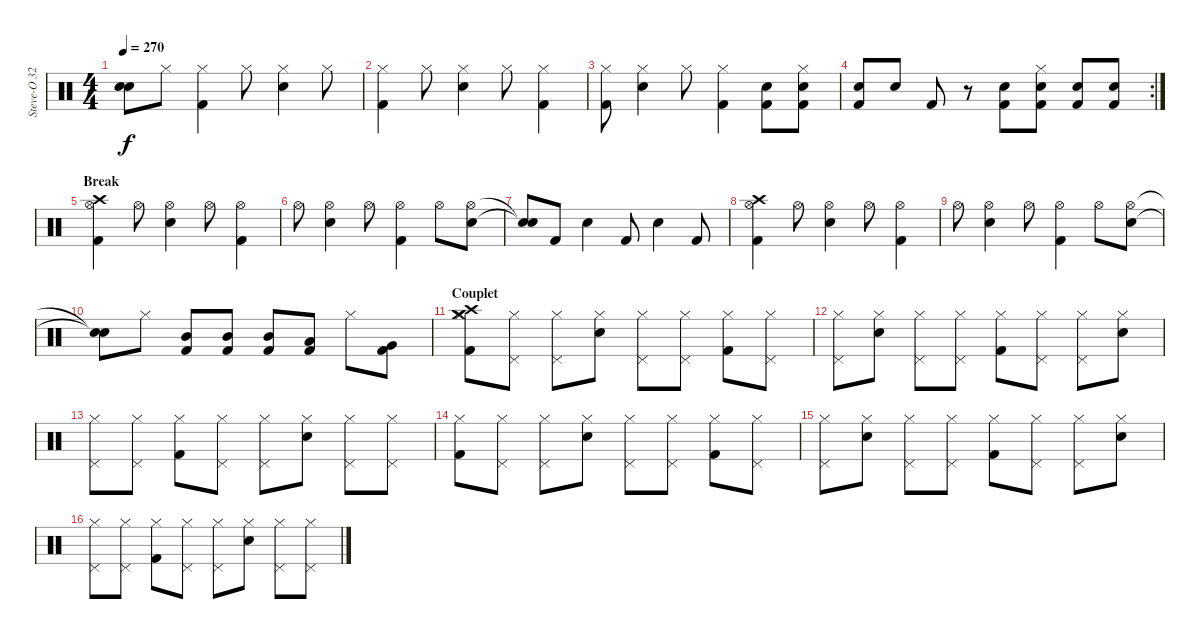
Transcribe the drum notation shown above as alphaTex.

\track ("Steve-O 32" "Steve-O 32") {instrument percussion}
\staff {score}
\articulation defaults
\ts (4 4)
\tempo 270
\clef neutral
\ks c
("Snare (hit)"{t} "Snare (hit)"{t}).8{dy f} "Hi-Hat (closed)".8 ("Kick (hit) 2" "Hi-Hat (closed)").4 "Hi-Hat (closed)".8 ("Electric Snare (hit)" "Hi-Hat (closed)").4 "Hi-Hat (closed)".8 |
("Hi-Hat (closed)" "Kick (hit) 2").4 "Hi-Hat (closed)".8 ("Electric Snare (hit)" "Hi-Hat (closed)").4 "Hi-Hat (closed)".8 ("Kick (hit) 2" "Hi-Hat (closed)").4 |
("Hi-Hat (closed)" "Kick (hit) 2").8 ("Electric Snare (hit)" "Hi-Hat (closed)").4 "Hi-Hat (closed)".8 ("Kick (hit) 2" "Hi-Hat (closed)").4 ("Electric Snare (hit)" "Kick (hit) 2").8 ("Electric Snare (hit)" "Hi-Hat (closed)" "Kick (hit) 2").8 |
\rc 2
("Electric Snare (hit)" "Kick (hit) 2").8 "Electric Snare (hit)".8 "Kick (hit) 2".8 r.8 ("Electric Snare (hit)" "Kick (hit) 2").8 ("Electric Snare (hit)" "Hi-Hat (closed)" "Kick (hit) 2").8 ("Electric Snare (hit)" "Kick (hit) 2").8 ("Electric Snare (hit)" "Kick (hit) 2").8 |
\section ("" "Break")
("Crash high (hit)" "Hi-Hat (open)" "Kick (hit) 2").4 "Hi-Hat (open)".8 ("Electric Snare (hit)" "Hi-Hat (open)").4 "Hi-Hat (open)".8 ("Kick (hit) 2" "Hi-Hat (open)").4 |
"Hi-Hat (open)".8 ("Electric Snare (hit)" "Hi-Hat (open)").4 "Hi-Hat (open)".8 ("Kick (hit) 2" "Hi-Hat (open)").4 "Hi-Hat (open)".8 ("Electric Snare (hit)" "Hi-Hat (open)").8 |
("Snare (hit)"{t} "Snare (hit)"{t}).8 "Kick (hit) 2".8 "Electric Snare (hit)".4 "Kick (hit) 2".8 "Electric Snare (hit)".4 "Kick (hit) 2".8 |
("Crash high (hit)" "Hi-Hat (open)" "Kick (hit) 2").4 "Hi-Hat (open)".8 ("Electric Snare (hit)" "Hi-Hat (open)").4 "Hi-Hat (open)".8 ("Kick (hit) 2" "Hi-Hat (open)").4 |
"Hi-Hat (open)".8 ("Electric Snare (hit)" "Hi-Hat (open)").4 "Hi-Hat (open)".8 ("Kick (hit) 2" "Hi-Hat (open)").4 "Hi-Hat (open)".8 ("Electric Snare (hit)" "Hi-Hat (open)").8 |
("Snare (hit)"{t} "Snare (hit)"{t}).8 "Hi-Hat (closed)".8 ("Mid Tom (hit)" "Kick (hit) 2").8 ("Mid Tom (hit)" "Kick (hit) 2").8 ("Mid Tom (hit)" "Kick (hit) 2").8 ("Low Tom (hit)" "Kick (hit) 2").8 "Hi-Hat (closed)".8 ("Very Low Tom (hit)" "Kick (hit) 2").8 |
\section ("" "Couplet")
("Crash medium (hit)" "Crash high (hit)" "Hi-Hat (closed)" "Kick (hit) 2").8 ("Pedal Hi-Hat (hit)" "Hi-Hat (closed)").8 ("Pedal Hi-Hat (hit)" "Hi-Hat (closed)").8 ("Electric Snare (hit)" "Hi-Hat (closed)").8 ("Pedal Hi-Hat (hit)" "Hi-Hat (closed)").8 ("Pedal Hi-Hat (hit)" "Hi-Hat (closed)").8 ("Hi-Hat (closed)" "Kick (hit) 2").8 ("Pedal Hi-Hat (hit)" "Hi-Hat (closed)").8 |
("Pedal Hi-Hat (hit)" "Hi-Hat (closed)").8 ("Electric Snare (hit)" "Hi-Hat (closed)").8 ("Pedal Hi-Hat (hit)" "Hi-Hat (closed)").8 ("Pedal Hi-Hat (hit)" "Hi-Hat (closed)").8 ("Kick (hit) 2" "Hi-Hat (closed)").8 ("Pedal Hi-Hat (hit)" "Hi-Hat (closed)").8 ("Pedal Hi-Hat (hit)" "Hi-Hat (closed)").8 ("Electric Snare (hit)" "Hi-Hat (closed)").8 |
("Pedal Hi-Hat (hit)" "Hi-Hat (closed)").8 ("Pedal Hi-Hat (hit)" "Hi-Hat (closed)").8 ("Kick (hit) 2" "Hi-Hat (closed)").8 ("Pedal Hi-Hat (hit)" "Hi-Hat (closed)").8 ("Pedal Hi-Hat (hit)" "Hi-Hat (closed)").8 ("Electric Snare (hit)" "Hi-Hat (closed)").8 ("Pedal Hi-Hat (hit)" "Hi-Hat (closed)").8 ("Pedal Hi-Hat (hit)" "Hi-Hat (closed)").8 |
("Hi-Hat (closed)" "Kick (hit) 2").8 ("Pedal Hi-Hat (hit)" "Hi-Hat (closed)").8 ("Pedal Hi-Hat (hit)" "Hi-Hat (closed)").8 ("Electric Snare (hit)" "Hi-Hat (closed)").8 ("Pedal Hi-Hat (hit)" "Hi-Hat (closed)").8 ("Pedal Hi-Hat (hit)" "Hi-Hat (closed)").8 ("Hi-Hat (closed)" "Kick (hit) 2").8 ("Pedal Hi-Hat (hit)" "Hi-Hat (closed)").8 |
("Pedal Hi-Hat (hit)" "Hi-Hat (closed)").8 ("Electric Snare (hit)" "Hi-Hat (closed)").8 ("Pedal Hi-Hat (hit)" "Hi-Hat (closed)").8 ("Pedal Hi-Hat (hit)" "Hi-Hat (closed)").8 ("Kick (hit) 2" "Hi-Hat (closed)").8 ("Pedal Hi-Hat (hit)" "Hi-Hat (closed)").8 ("Pedal Hi-Hat (hit)" "Hi-Hat (closed)").8 ("Electric Snare (hit)" "Hi-Hat (closed)").8 |
("Pedal Hi-Hat (hit)" "Hi-Hat (closed)").8 ("Pedal Hi-Hat (hit)" "Hi-Hat (closed)").8 ("Kick (hit) 2" "Hi-Hat (closed)").8 ("Pedal Hi-Hat (hit)" "Hi-Hat (closed)").8 ("Pedal Hi-Hat (hit)" "Hi-Hat (closed)").8 ("Electric Snare (hit)" "Hi-Hat (closed)").8 ("Pedal Hi-Hat (hit)" "Hi-Hat (closed)").8 ("Pedal Hi-Hat (hit)" "Hi-Hat (closed)").8
